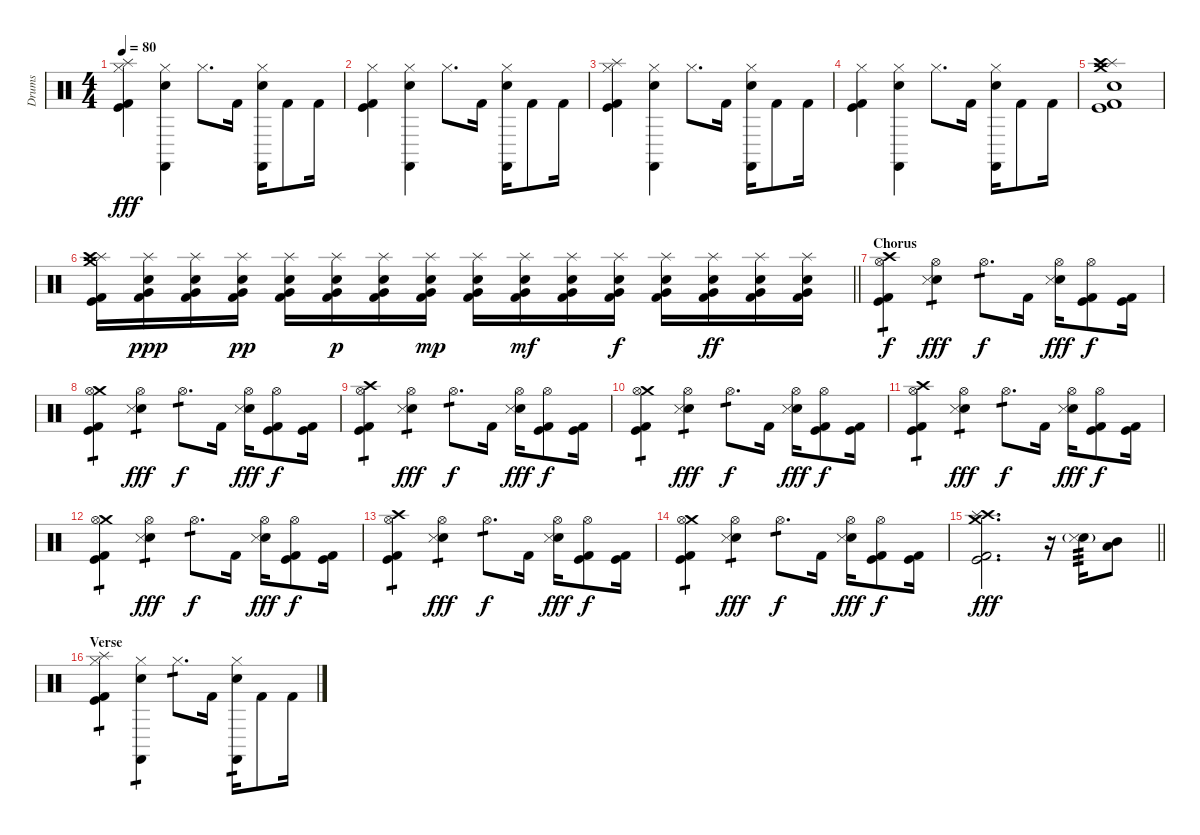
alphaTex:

\track ("Drums" "Drums") {instrument percussion}
\staff {score}
\articulation defaults
\ts (4 4)
\tempo 80
\clef neutral
\ks c
("Splash (hit)" "Hi-Hat (closed)" "Kick (hit)" "Kick (hit) 2").4{dy fff} ("Hi-Hat (closed)" "Castanets (hit)" "Snare (hit) 2").4 "Hi-Hat (closed)".8{d} "Kick (hit) 2".16 ("Hi-Hat (closed)" "Castanets (hit)" "Snare (hit) 2").16 "Kick (hit) 2".8 "Kick (hit) 2".16 |
("Hi-Hat (closed)" "Kick (hit)" "Kick (hit) 2").4 ("Hi-Hat (closed)" "Castanets (hit)" "Snare (hit) 2").4 "Hi-Hat (closed)".8{d} "Kick (hit) 2".16 ("Hi-Hat (closed)" "Castanets (hit)" "Snare (hit) 2").16 "Kick (hit) 2".8 "Kick (hit) 2".16 |
("Splash (hit)" "Hi-Hat (closed)" "Kick (hit)" "Kick (hit) 2").4 ("Hi-Hat (closed)" "Castanets (hit)" "Snare (hit) 2").4 "Hi-Hat (closed)".8{d} "Kick (hit) 2".16 ("Hi-Hat (closed)" "Castanets (hit)" "Snare (hit) 2").16 "Kick (hit) 2".8 "Kick (hit) 2".16 |
("Hi-Hat (closed)" "Kick (hit)" "Kick (hit) 2").4 ("Hi-Hat (closed)" "Castanets (hit)" "Snare (hit) 2").4 "Hi-Hat (closed)".8{d} "Kick (hit) 2".16 ("Hi-Hat (closed)" "Castanets (hit)" "Snare (hit) 2").16 "Kick (hit) 2".8 "Kick (hit) 2".16 |
("Splash (hit)" "Crash medium (hit)" "Crash high (hit)" "Snare (hit) 2" "Kick (hit)" "Kick (hit) 2").1 |
\barLineRight lightlight
("Crash medium (hit)" "Splash (hit)" "Crash high (hit)" "Kick (hit)" "Kick (hit) 2").16 ("Splash (hit)" "Snare (hit) 2" "Very Low Tom (hit)" "Kick (hit) 2").16{dy ppp} ("Splash (hit)" "Snare (hit) 2" "Very Low Tom (hit)" "Kick (hit) 2").16 ("Splash (hit)" "Snare (hit) 2" "Very Low Tom (hit)" "Kick (hit) 2").16{dy pp} ("Splash (hit)" "Snare (hit) 2" "Very Low Tom (hit)" "Kick (hit) 2").16 ("Splash (hit)" "Snare (hit) 2" "Very Low Tom (hit)" "Kick (hit) 2").16{dy p} ("Splash (hit)" "Snare (hit) 2" "Very Low Tom (hit)" "Kick (hit) 2").16 ("Splash (hit)" "Snare (hit) 2" "Very Low Tom (hit)" "Kick (hit) 2").16{dy mp} ("Splash (hit)" "Snare (hit) 2" "Very Low Tom (hit)" "Kick (hit) 2").16 ("Splash (hit)" "Snare (hit) 2" "Very Low Tom (hit)" "Kick (hit) 2").16{dy mf} ("Splash (hit)" "Snare (hit) 2" "Very Low Tom (hit)" "Kick (hit) 2").16 ("Splash (hit)" "Snare (hit) 2" "Very Low Tom (hit)" "Kick (hit) 2").16{dy f} ("Splash (hit)" "Snare (hit) 2" "Very Low Tom (hit)" "Kick (hit) 2").16 ("Splash (hit)" "Snare (hit) 2" "Very Low Tom (hit)" "Kick (hit) 2").16{dy ff} ("Splash (hit)" "Snare (hit) 2" "Very Low Tom (hit)" "Kick (hit) 2").16 ("Splash (hit)" "Snare (hit) 2" "Very Low Tom (hit)" "Kick (hit) 2").16 |
\section ("" "Chorus")
("Crash high (hit)" "Hi-Hat (open)" "Kick (hit)" "Kick (hit) 2").4{tp 1 dy f} ("Hi-Hat (open)" "Snare (hit) 2" "Snare (side stick) 3").4{tp 1 dy fff} "Hi-Hat (open)".8{d tp 1 dy f} "Kick (hit) 2".16 ("Hi-Hat (open)" "Snare (hit) 2" "Snare (side stick) 3").16{dy fff} ("Hi-Hat (open)" "Kick (hit)" "Kick (hit) 2").8{dy f} ("Kick (hit)" "Kick (hit) 2").16 |
("Crash medium (hit)" "Hi-Hat (open)" "Kick (hit)" "Kick (hit) 2").4{tp 1} ("Hi-Hat (open)" "Snare (hit) 2" "Snare (side stick) 3").4{tp 1 dy fff} "Hi-Hat (open)".8{d tp 1 dy f} "Kick (hit) 2".16 ("Hi-Hat (open)" "Snare (hit) 2" "Snare (side stick) 3").16{dy fff} ("Hi-Hat (open)" "Kick (hit)" "Kick (hit) 2").8{dy f} ("Kick (hit)" "Kick (hit) 2").16 |
("Crash high (hit)" "Hi-Hat (open)" "Kick (hit)" "Kick (hit) 2").4{tp 1} ("Hi-Hat (open)" "Snare (hit) 2" "Snare (side stick) 3").4{tp 1 dy fff} "Hi-Hat (open)".8{d tp 1 dy f} "Kick (hit) 2".16 ("Hi-Hat (open)" "Snare (hit) 2" "Snare (side stick) 3").16{dy fff} ("Hi-Hat (open)" "Kick (hit)" "Kick (hit) 2").8{dy f} ("Kick (hit)" "Kick (hit) 2").16 |
("Crash medium (hit)" "Hi-Hat (open)" "Kick (hit)" "Kick (hit) 2").4{tp 1} ("Hi-Hat (open)" "Snare (hit) 2" "Snare (side stick) 3").4{tp 1 dy fff} "Hi-Hat (open)".8{d tp 1 dy f} "Kick (hit) 2".16 ("Hi-Hat (open)" "Snare (hit) 2" "Snare (side stick) 3").16{dy fff} ("Hi-Hat (open)" "Kick (hit)" "Kick (hit) 2").8{dy f} ("Kick (hit)" "Kick (hit) 2").16 |
("Crash high (hit)" "Hi-Hat (open)" "Kick (hit)" "Kick (hit) 2").4{tp 1} ("Hi-Hat (open)" "Snare (hit) 2" "Snare (side stick) 3").4{tp 1 dy fff} "Hi-Hat (open)".8{d tp 1 dy f} "Kick (hit) 2".16 ("Hi-Hat (open)" "Snare (hit) 2" "Snare (side stick) 3").16{dy fff} ("Hi-Hat (open)" "Kick (hit)" "Kick (hit) 2").8{dy f} ("Kick (hit)" "Kick (hit) 2").16 |
("Crash medium (hit)" "Hi-Hat (open)" "Kick (hit)" "Kick (hit) 2").4{tp 1} ("Hi-Hat (open)" "Snare (hit) 2" "Snare (side stick) 3").4{tp 1 dy fff} "Hi-Hat (open)".8{d tp 1 dy f} "Kick (hit) 2".16 ("Hi-Hat (open)" "Snare (hit) 2" "Snare (side stick) 3").16{dy fff} ("Hi-Hat (open)" "Kick (hit)" "Kick (hit) 2").8{dy f} ("Kick (hit)" "Kick (hit) 2").16 |
("Crash high (hit)" "Hi-Hat (open)" "Kick (hit)" "Kick (hit) 2").4{tp 1} ("Hi-Hat (open)" "Snare (hit) 2" "Snare (side stick) 3").4{tp 1 dy fff} "Hi-Hat (open)".8{d tp 1 dy f} "Kick (hit) 2".16 ("Hi-Hat (open)" "Snare (hit) 2" "Snare (side stick) 3").16{dy fff} ("Hi-Hat (open)" "Kick (hit)" "Kick (hit) 2").8{dy f} ("Kick (hit)" "Kick (hit) 2").16 |
("Crash medium (hit)" "Hi-Hat (open)" "Kick (hit)" "Kick (hit) 2").4{tp 1} ("Hi-Hat (open)" "Snare (hit) 2" "Snare (side stick) 3").4{tp 1 dy fff} "Hi-Hat (open)".8{d tp 1 dy f} "Kick (hit) 2".16 ("Hi-Hat (open)" "Snare (hit) 2" "Snare (side stick) 3").16{dy fff} ("Hi-Hat (open)" "Kick (hit)" "Kick (hit) 2").8{dy f} ("Kick (hit)" "Kick (hit) 2").16 |
\barLineRight lightlight
("Crash medium (hit)" "Crash high (hit)" "Splash (hit)" "Kick (hit)" "Kick (hit) 2").2{d dy fff} r.16 ("Snare (hit) 2" "Snare (side stick) 3"{g}).16{tp 3} ("Mid Tom (hit)" "Low Tom (hit)").8 |
\section ("" "Verse")
("Splash (hit)" "Hi-Hat (closed)" "Kick (hit)" "Kick (hit) 2").4{tp 1} ("Hi-Hat (closed)" "Castanets (hit)" "Snare (hit) 2").4{tp 1} "Hi-Hat (closed)".8{d tp 1} "Kick (hit) 2".16 ("Hi-Hat (closed)" "Castanets (hit)" "Snare (hit) 2").16{tp 1} "Kick (hit) 2".8 "Kick (hit) 2".16
